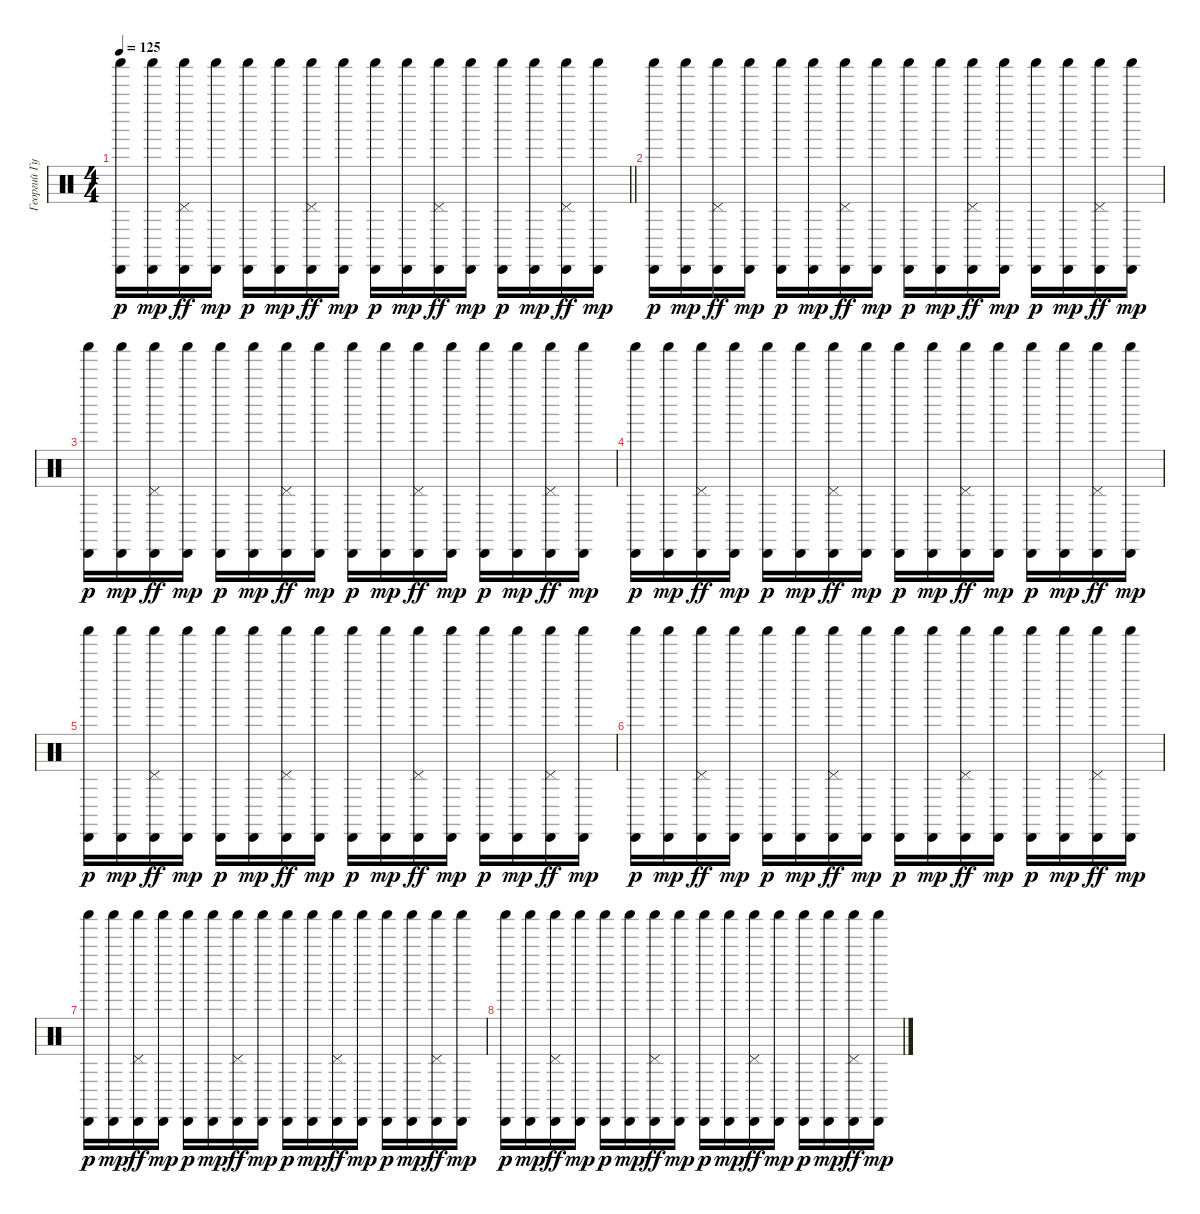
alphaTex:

\track ("Георгий Гурьянов_2" "Георгий Гу") {instrument percussion}
\staff {score}
\articulation defaults
\ts (4 4)
\tempo 125
\clef neutral
\barLineRight lightlight
\ks c
("Cabasa (hit)" "Shaker (hit)").16{dy p} ("Cabasa (hit)" "Shaker (hit)").16{dy mp} ("Cabasa (hit)" "Shaker (hit)" "Pedal Hi-Hat (hit)").16{dy ff} ("Cabasa (hit)" "Shaker (hit)").16{dy mp} ("Cabasa (hit)" "Shaker (hit)").16{dy p} ("Cabasa (hit)" "Shaker (hit)").16{dy mp} ("Cabasa (hit)" "Shaker (hit)" "Pedal Hi-Hat (hit)").16{dy ff} ("Cabasa (hit)" "Shaker (hit)").16{dy mp} ("Cabasa (hit)" "Shaker (hit)").16{dy p} ("Cabasa (hit)" "Shaker (hit)").16{dy mp} ("Cabasa (hit)" "Shaker (hit)" "Pedal Hi-Hat (hit)").16{dy ff} ("Cabasa (hit)" "Shaker (hit)").16{dy mp} ("Cabasa (hit)" "Shaker (hit)").16{dy p} ("Cabasa (hit)" "Shaker (hit)").16{dy mp} ("Cabasa (hit)" "Shaker (hit)" "Pedal Hi-Hat (hit)").16{dy ff} ("Cabasa (hit)" "Shaker (hit)").16{dy mp} |
("Cabasa (hit)" "Shaker (hit)").16{dy p} ("Cabasa (hit)" "Shaker (hit)").16{dy mp} ("Cabasa (hit)" "Shaker (hit)" "Pedal Hi-Hat (hit)").16{dy ff} ("Cabasa (hit)" "Shaker (hit)").16{dy mp} ("Cabasa (hit)" "Shaker (hit)").16{dy p} ("Cabasa (hit)" "Shaker (hit)").16{dy mp} ("Cabasa (hit)" "Shaker (hit)" "Pedal Hi-Hat (hit)").16{dy ff} ("Cabasa (hit)" "Shaker (hit)").16{dy mp} ("Cabasa (hit)" "Shaker (hit)").16{dy p} ("Cabasa (hit)" "Shaker (hit)").16{dy mp} ("Cabasa (hit)" "Shaker (hit)" "Pedal Hi-Hat (hit)").16{dy ff} ("Cabasa (hit)" "Shaker (hit)").16{dy mp} ("Cabasa (hit)" "Shaker (hit)").16{dy p} ("Cabasa (hit)" "Shaker (hit)").16{dy mp} ("Cabasa (hit)" "Shaker (hit)" "Pedal Hi-Hat (hit)").16{dy ff} ("Cabasa (hit)" "Shaker (hit)").16{dy mp} |
("Cabasa (hit)" "Shaker (hit)").16{dy p} ("Cabasa (hit)" "Shaker (hit)").16{dy mp} ("Cabasa (hit)" "Shaker (hit)" "Pedal Hi-Hat (hit)").16{dy ff} ("Cabasa (hit)" "Shaker (hit)").16{dy mp} ("Cabasa (hit)" "Shaker (hit)").16{dy p} ("Cabasa (hit)" "Shaker (hit)").16{dy mp} ("Cabasa (hit)" "Shaker (hit)" "Pedal Hi-Hat (hit)").16{dy ff} ("Cabasa (hit)" "Shaker (hit)").16{dy mp} ("Cabasa (hit)" "Shaker (hit)").16{dy p} ("Cabasa (hit)" "Shaker (hit)").16{dy mp} ("Cabasa (hit)" "Shaker (hit)" "Pedal Hi-Hat (hit)").16{dy ff} ("Cabasa (hit)" "Shaker (hit)").16{dy mp} ("Cabasa (hit)" "Shaker (hit)").16{dy p} ("Cabasa (hit)" "Shaker (hit)").16{dy mp} ("Cabasa (hit)" "Shaker (hit)" "Pedal Hi-Hat (hit)").16{dy ff} ("Cabasa (hit)" "Shaker (hit)").16{dy mp} |
("Cabasa (hit)" "Shaker (hit)").16{dy p} ("Cabasa (hit)" "Shaker (hit)").16{dy mp} ("Cabasa (hit)" "Shaker (hit)" "Pedal Hi-Hat (hit)").16{dy ff} ("Cabasa (hit)" "Shaker (hit)").16{dy mp} ("Cabasa (hit)" "Shaker (hit)").16{dy p} ("Cabasa (hit)" "Shaker (hit)").16{dy mp} ("Cabasa (hit)" "Shaker (hit)" "Pedal Hi-Hat (hit)").16{dy ff} ("Cabasa (hit)" "Shaker (hit)").16{dy mp} ("Cabasa (hit)" "Shaker (hit)").16{dy p} ("Cabasa (hit)" "Shaker (hit)").16{dy mp} ("Cabasa (hit)" "Shaker (hit)" "Pedal Hi-Hat (hit)").16{dy ff} ("Cabasa (hit)" "Shaker (hit)").16{dy mp} ("Cabasa (hit)" "Shaker (hit)").16{dy p} ("Cabasa (hit)" "Shaker (hit)").16{dy mp} ("Cabasa (hit)" "Shaker (hit)" "Pedal Hi-Hat (hit)").16{dy ff} ("Cabasa (hit)" "Shaker (hit)").16{dy mp} |
("Cabasa (hit)" "Shaker (hit)").16{dy p} ("Cabasa (hit)" "Shaker (hit)").16{dy mp} ("Cabasa (hit)" "Shaker (hit)" "Pedal Hi-Hat (hit)").16{dy ff} ("Cabasa (hit)" "Shaker (hit)").16{dy mp} ("Cabasa (hit)" "Shaker (hit)").16{dy p} ("Cabasa (hit)" "Shaker (hit)").16{dy mp} ("Cabasa (hit)" "Shaker (hit)" "Pedal Hi-Hat (hit)").16{dy ff} ("Cabasa (hit)" "Shaker (hit)").16{dy mp} ("Cabasa (hit)" "Shaker (hit)").16{dy p} ("Cabasa (hit)" "Shaker (hit)").16{dy mp} ("Cabasa (hit)" "Shaker (hit)" "Pedal Hi-Hat (hit)").16{dy ff} ("Cabasa (hit)" "Shaker (hit)").16{dy mp} ("Cabasa (hit)" "Shaker (hit)").16{dy p} ("Cabasa (hit)" "Shaker (hit)").16{dy mp} ("Cabasa (hit)" "Shaker (hit)" "Pedal Hi-Hat (hit)").16{dy ff} ("Cabasa (hit)" "Shaker (hit)").16{dy mp} |
("Cabasa (hit)" "Shaker (hit)").16{dy p} ("Cabasa (hit)" "Shaker (hit)").16{dy mp} ("Cabasa (hit)" "Shaker (hit)" "Pedal Hi-Hat (hit)").16{dy ff} ("Cabasa (hit)" "Shaker (hit)").16{dy mp} ("Cabasa (hit)" "Shaker (hit)").16{dy p} ("Cabasa (hit)" "Shaker (hit)").16{dy mp} ("Cabasa (hit)" "Shaker (hit)" "Pedal Hi-Hat (hit)").16{dy ff} ("Cabasa (hit)" "Shaker (hit)").16{dy mp} ("Cabasa (hit)" "Shaker (hit)").16{dy p} ("Cabasa (hit)" "Shaker (hit)").16{dy mp} ("Cabasa (hit)" "Shaker (hit)" "Pedal Hi-Hat (hit)").16{dy ff} ("Cabasa (hit)" "Shaker (hit)").16{dy mp} ("Cabasa (hit)" "Shaker (hit)").16{dy p} ("Cabasa (hit)" "Shaker (hit)").16{dy mp} ("Cabasa (hit)" "Shaker (hit)" "Pedal Hi-Hat (hit)").16{dy ff} ("Cabasa (hit)" "Shaker (hit)").16{dy mp} |
("Cabasa (hit)" "Shaker (hit)").16{dy p} ("Cabasa (hit)" "Shaker (hit)").16{dy mp} ("Cabasa (hit)" "Shaker (hit)" "Pedal Hi-Hat (hit)").16{dy ff} ("Cabasa (hit)" "Shaker (hit)").16{dy mp} ("Cabasa (hit)" "Shaker (hit)").16{dy p} ("Cabasa (hit)" "Shaker (hit)").16{dy mp} ("Cabasa (hit)" "Shaker (hit)" "Pedal Hi-Hat (hit)").16{dy ff} ("Cabasa (hit)" "Shaker (hit)").16{dy mp} ("Cabasa (hit)" "Shaker (hit)").16{dy p} ("Cabasa (hit)" "Shaker (hit)").16{dy mp} ("Cabasa (hit)" "Shaker (hit)" "Pedal Hi-Hat (hit)").16{dy ff} ("Cabasa (hit)" "Shaker (hit)").16{dy mp} ("Cabasa (hit)" "Shaker (hit)").16{dy p} ("Cabasa (hit)" "Shaker (hit)").16{dy mp} ("Cabasa (hit)" "Shaker (hit)" "Pedal Hi-Hat (hit)").16{dy ff} ("Cabasa (hit)" "Shaker (hit)").16{dy mp} |
("Cabasa (hit)" "Shaker (hit)").16{dy p} ("Cabasa (hit)" "Shaker (hit)").16{dy mp} ("Cabasa (hit)" "Shaker (hit)" "Pedal Hi-Hat (hit)").16{dy ff} ("Cabasa (hit)" "Shaker (hit)").16{dy mp} ("Cabasa (hit)" "Shaker (hit)").16{dy p} ("Cabasa (hit)" "Shaker (hit)").16{dy mp} ("Cabasa (hit)" "Shaker (hit)" "Pedal Hi-Hat (hit)").16{dy ff} ("Cabasa (hit)" "Shaker (hit)").16{dy mp} ("Cabasa (hit)" "Shaker (hit)").16{dy p} ("Cabasa (hit)" "Shaker (hit)").16{dy mp} ("Cabasa (hit)" "Shaker (hit)" "Pedal Hi-Hat (hit)").16{dy ff} ("Cabasa (hit)" "Shaker (hit)").16{dy mp} ("Cabasa (hit)" "Shaker (hit)").16{dy p} ("Cabasa (hit)" "Shaker (hit)").16{dy mp} ("Cabasa (hit)" "Shaker (hit)" "Pedal Hi-Hat (hit)").16{dy ff} ("Cabasa (hit)" "Shaker (hit)").16{dy mp}
